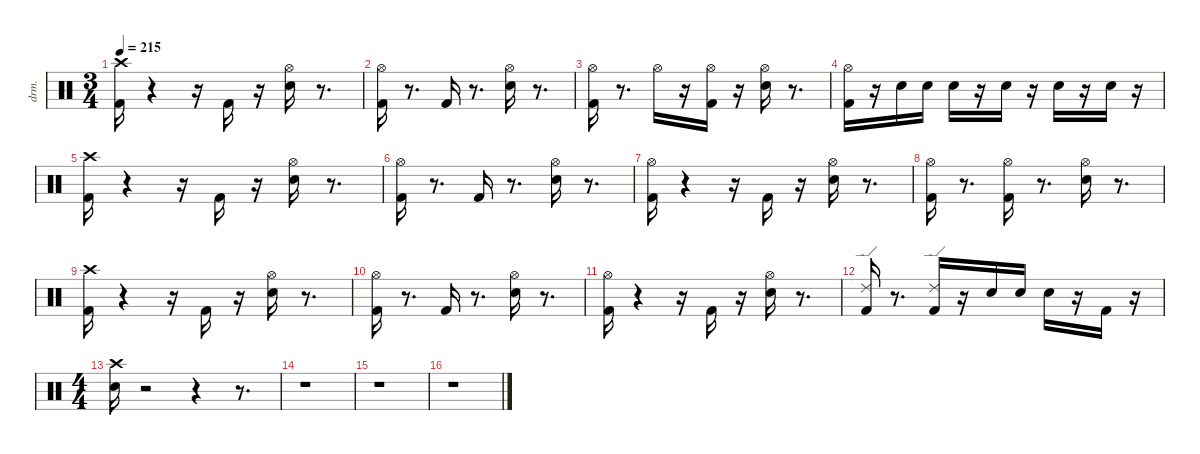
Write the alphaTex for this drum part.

\defaultSystemsLayout 4
\hideDynamics
\bracketExtendMode nobrackets
\otherSystemsTrackNameOrientation horizontal
\track ("drums(暫定)" "drm.") {instrument percussion}
\staff {score}
\articulation defaults
\ts (3 4)
\tempo 215
\clef neutral
\ks aminor
("Kick (hit) 2" "Crash high (hit)"{acc #}).16{dy fff beam Down} r.4{beam Down} r.16{beam Down} "Kick (hit) 2".16{dy ff beam Up} r.16{beam Up} ("Snare (hit) 2" "Hi-Hat (open)"{acc #}).16{beam Down} r.8{d beam Down} |
("Kick (hit) 2" "Hi-Hat (open)"{acc #}).16{beam Down} r.8{d beam Down} "Kick (hit) 2".16{beam Up} r.8{d beam Up} ("Snare (hit) 2" "Hi-Hat (open)"{acc #}).16{beam Down} r.8{d beam Down} |
("Kick (hit) 2" "Hi-Hat (open)"{acc #}).16{dy fff beam Down} r.8{d beam Down} "Hi-Hat (open)"{acc #}.16{dy ff beam Down} r.16{beam Down} ("Kick (hit) 2" "Hi-Hat (open)"{acc #}).16{beam Down} r.16{beam Down} ("Snare (hit) 2" "Hi-Hat (open)"{acc #}).16{beam Down} r.8{d beam Down} |
("Kick (hit) 2" "Hi-Hat (open)"{acc #}).16{beam Down} r.16{beam Down} "Snare (hit) 2".16{dy mp beam Down} "Snare (hit) 2".16{dy p beam Down} "Snare (hit) 2".16{dy f beam Down} r.16{beam Down} "Snare (hit) 2".16{dy fff beam Down} r.16{beam Down} "Snare (hit) 2".16{dy ff beam Down} r.16{beam Down} "Snare (hit) 2".16{dy fff beam Down} r.16{beam Down} |
("Kick (hit) 2" "Crash high (hit)"{acc #}).16{beam Down} r.4{beam Down} r.16{beam Down} "Kick (hit) 2".16{dy ff beam Up} r.16{beam Up} ("Snare (hit) 2" "Hi-Hat (open)"{acc #}).16{beam Down} r.8{d beam Down} |
("Kick (hit) 2" "Hi-Hat (open)"{acc #}).16{beam Down} r.8{d beam Down} "Kick (hit) 2".16{beam Up} r.8{d beam Up} ("Snare (hit) 2" "Hi-Hat (open)"{acc #}).16{beam Down} r.8{d beam Down} |
("Kick (hit) 2" "Hi-Hat (open)"{acc #}).16{dy fff beam Down} r.4{beam Down} r.16{beam Down} "Kick (hit) 2".16{dy ff beam Up} r.16{beam Up} ("Snare (hit) 2" "Hi-Hat (open)"{acc #}).16{beam Down} r.8{d beam Down} |
("Kick (hit) 2" "Hi-Hat (open)"{acc #}).16{beam Down} r.8{d beam Down} ("Kick (hit) 2" "Hi-Hat (open)"{acc #}).16{beam Down} r.8{d beam Down} ("Snare (hit) 2" "Hi-Hat (open)"{acc #}).16{beam Down} r.8{d beam Down} |
("Kick (hit) 2" "Crash high (hit)"{acc #}).16{dy fff beam Down} r.4{beam Down} r.16{beam Down} "Kick (hit) 2".16{dy ff beam Up} r.16{beam Up} ("Snare (hit) 2" "Hi-Hat (open)"{acc #}).16{beam Down} r.8{d beam Down} |
("Kick (hit) 2" "Hi-Hat (open)"{acc #}).16{beam Down} r.8{d beam Down} "Kick (hit) 2".16{beam Up} r.8{d beam Up} ("Snare (hit) 2" "Hi-Hat (open)"{acc #}).16{beam Down} r.8{d beam Down} |
("Kick (hit) 2" "Hi-Hat (open)"{acc #}).16{dy fff beam Down} r.4{beam Down} r.16{beam Down} "Kick (hit) 2".16{dy ff beam Up} r.16{beam Up} ("Snare (hit) 2" "Hi-Hat (open)"{acc #}).16{beam Down} r.8{d beam Down} |
("Kick (hit) 2" "Ride (edge) 2").16{beam Up} r.8{d beam Up} ("Kick (hit) 2" "Ride (edge) 2").16{beam Up} r.16{beam Up} "Snare (hit) 2".16{dy f beam Down} "Snare (hit) 2".16{dy mp beam Down} "Snare (hit) 2".16{dy ff beam Down} r.16{beam Down} "Kick (hit) 2".16{dy fff beam Up} r.16{beam Up} |
\ts (4 4)
("Snare (hit) 2" "Crash high (hit)"{acc #}).16{beam Down} r.2{beam Down} r.4{beam Down} r.8{d beam Down} |
r.1{beam Down} |
r.1{beam Down} |
r.1{beam Down}
